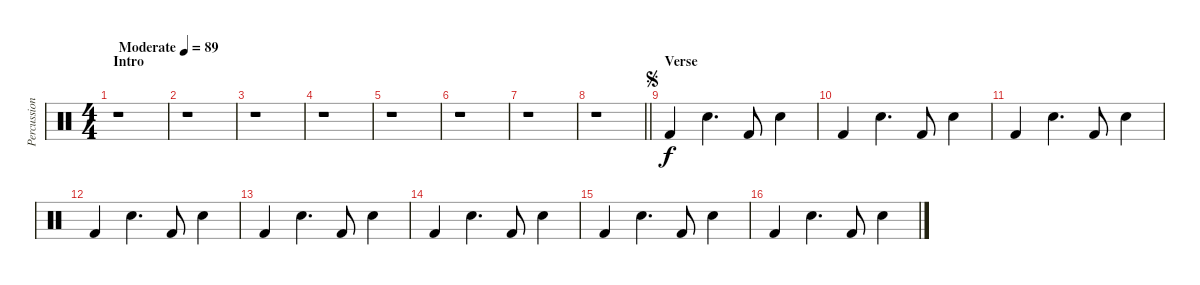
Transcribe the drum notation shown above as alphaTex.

\track ("Percussion" "Percussion") {instrument percussion}
\staff {score}
\articulation defaults
\ts (4 4)
\section ("" "Intro")
\tempo (89 "Moderate")
\clef neutral
\ks c
r.1{dy f} |
r.1 |
r.1 |
r.1 |
r.1 |
r.1 |
r.1 |
\barLineRight lightlight
r.1 |
\section ("" "Verse")
\jump segno "Kick (hit) 2".4 "Electric Snare (hit)".4{d} "Kick (hit) 2".8 "Electric Snare (hit)".4
|
"Kick (hit) 2".4 "Electric Snare (hit)".4{d} "Kick (hit) 2".8 "Electric Snare (hit)".4 |
"Kick (hit) 2".4 "Electric Snare (hit)".4{d} "Kick (hit) 2".8 "Electric Snare (hit)".4 |
"Kick (hit) 2".4 "Electric Snare (hit)".4{d} "Kick (hit) 2".8 "Electric Snare (hit)".4 |
"Kick (hit) 2".4 "Electric Snare (hit)".4{d} "Kick (hit) 2".8 "Electric Snare (hit)".4 |
"Kick (hit) 2".4 "Electric Snare (hit)".4{d} "Kick (hit) 2".8 "Electric Snare (hit)".4 |
"Kick (hit) 2".4 "Electric Snare (hit)".4{d} "Kick (hit) 2".8 "Electric Snare (hit)".4 |
"Kick (hit) 2".4 "Electric Snare (hit)".4{d} "Kick (hit) 2".8 "Electric Snare (hit)".4
